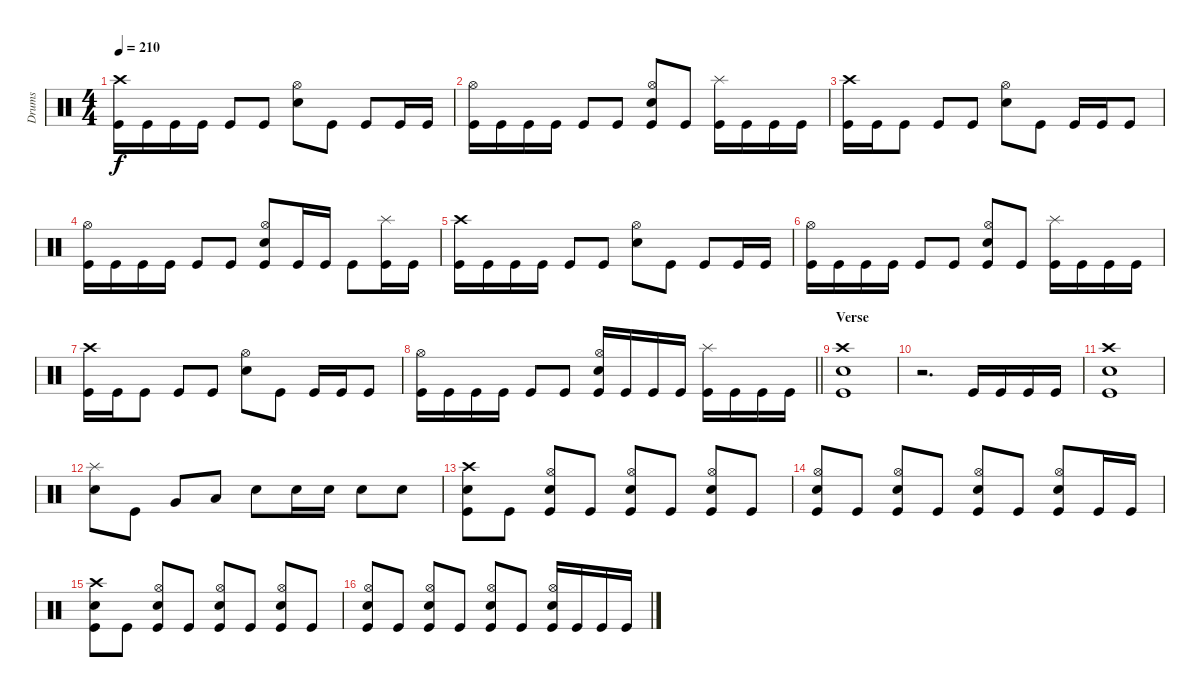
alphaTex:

\track ("Drums" "Drums") {instrument percussion}
\staff {score}
\articulation defaults
\ts (4 4)
\tempo 210
\clef neutral
\ks c
("Crash high (hit)" "Kick (hit)").16{dy f} "Kick (hit)".16 "Kick (hit)".16 "Kick (hit)".16 "Kick (hit)".8 "Kick (hit)".8 ("Hi-Hat (open)" "Snare (hit) 2").8 "Kick (hit)".8 "Kick (hit)".8 "Kick (hit)".16 "Kick (hit)".16 |
("Hi-Hat (open)" "Kick (hit)").16 "Kick (hit)".16 "Kick (hit)".16 "Kick (hit)".16 "Kick (hit)".8 "Kick (hit)".8 ("Hi-Hat (open)" "Snare (hit) 2" "Kick (hit)").8 "Kick (hit)".8 ("Splash (hit)" "Kick (hit)").16 "Kick (hit)".16 "Kick (hit)".16 "Kick (hit)".16 |
("Crash high (hit)" "Kick (hit)").16 "Kick (hit)".16 "Kick (hit)".8 "Kick (hit)".8 "Kick (hit)".8 ("Hi-Hat (open)" "Snare (hit) 2").8 "Kick (hit)".8 "Kick (hit)".16 "Kick (hit)".16 "Kick (hit)".8 |
("Hi-Hat (open)" "Kick (hit)").16 "Kick (hit)".16 "Kick (hit)".16 "Kick (hit)".16 "Kick (hit)".8 "Kick (hit)".8 ("Hi-Hat (open)" "Snare (hit) 2" "Kick (hit)").8 "Kick (hit)".16 "Kick (hit)".16 "Kick (hit)".8 ("Splash (hit)" "Kick (hit)").16 "Kick (hit)".16 |
("Crash high (hit)" "Kick (hit)").16 "Kick (hit)".16 "Kick (hit)".16 "Kick (hit)".16 "Kick (hit)".8 "Kick (hit)".8 ("Hi-Hat (open)" "Snare (hit) 2").8 "Kick (hit)".8 "Kick (hit)".8 "Kick (hit)".16 "Kick (hit)".16 |
("Hi-Hat (open)" "Kick (hit)").16 "Kick (hit)".16 "Kick (hit)".16 "Kick (hit)".16 "Kick (hit)".8 "Kick (hit)".8 ("Hi-Hat (open)" "Snare (hit) 2" "Kick (hit)").8 "Kick (hit)".8 ("Splash (hit)" "Kick (hit)").16 "Kick (hit)".16 "Kick (hit)".16 "Kick (hit)".16 |
("Crash high (hit)" "Kick (hit)").16 "Kick (hit)".16 "Kick (hit)".8 "Kick (hit)".8 "Kick (hit)".8 ("Hi-Hat (open)" "Snare (hit) 2").8 "Kick (hit)".8 "Kick (hit)".16 "Kick (hit)".16 "Kick (hit)".8 |
\barLineRight lightlight
("Hi-Hat (open)" "Kick (hit)").16 "Kick (hit)".16 "Kick (hit)".16 "Kick (hit)".16 "Kick (hit)".8 "Kick (hit)".8 ("Hi-Hat (open)" "Snare (hit) 2" "Kick (hit)").16 "Kick (hit)".16 "Kick (hit)".16 "Kick (hit)".16 ("Splash (hit)" "Kick (hit)").16 "Kick (hit)".16 "Kick (hit)".16 "Kick (hit)".16 |
\section ("" "Verse")
("Crash high (hit)" "Electric Snare (hit)" "Kick (hit)").1 |
r.2{d} "Kick (hit)".16 "Kick (hit)".16 "Kick (hit)".16 "Kick (hit)".16 |
("Crash high (hit)" "Electric Snare (hit)" "Kick (hit)").1 |
("Splash (hit)" "Electric Snare (hit)").8 "Kick (hit)".8 "Very Low Tom (hit)".8 "Low Floor Tom (hit)".8 "Electric Snare (hit)".8 "Electric Snare (hit)".16 "Electric Snare (hit)".16 "Electric Snare (hit)".8 "Electric Snare (hit)".8 |
("Crash high (hit)" "Electric Snare (hit)" "Kick (hit)").8 "Kick (hit)".8 ("Hi-Hat (open)" "Electric Snare (hit)" "Kick (hit)").8 "Kick (hit)".8 ("Hi-Hat (open)" "Electric Snare (hit)" "Kick (hit)").8 "Kick (hit)".8 ("Hi-Hat (open)" "Electric Snare (hit)" "Kick (hit)").8 "Kick (hit)".8 |
("Hi-Hat (open)" "Electric Snare (hit)" "Kick (hit)").8 "Kick (hit)".8 ("Hi-Hat (open)" "Electric Snare (hit)" "Kick (hit)").8 "Kick (hit)".8 ("Hi-Hat (open)" "Electric Snare (hit)" "Kick (hit)").8 "Kick (hit)".8 ("Hi-Hat (open)" "Electric Snare (hit)" "Kick (hit)").8 "Kick (hit)".16 "Kick (hit)".16 |
("Crash high (hit)" "Electric Snare (hit)" "Kick (hit)").8 "Kick (hit)".8 ("Hi-Hat (open)" "Electric Snare (hit)" "Kick (hit)").8 "Kick (hit)".8 ("Hi-Hat (open)" "Electric Snare (hit)" "Kick (hit)").8 "Kick (hit)".8 ("Hi-Hat (open)" "Electric Snare (hit)" "Kick (hit)").8 "Kick (hit)".8 |
("Hi-Hat (open)" "Electric Snare (hit)" "Kick (hit)").8 "Kick (hit)".8 ("Hi-Hat (open)" "Electric Snare (hit)" "Kick (hit)").8 "Kick (hit)".8 ("Hi-Hat (open)" "Electric Snare (hit)" "Kick (hit)").8 "Kick (hit)".8 ("Hi-Hat (open)" "Electric Snare (hit)" "Kick (hit)").16 "Kick (hit)".16 "Kick (hit)".16 "Kick (hit)".16
